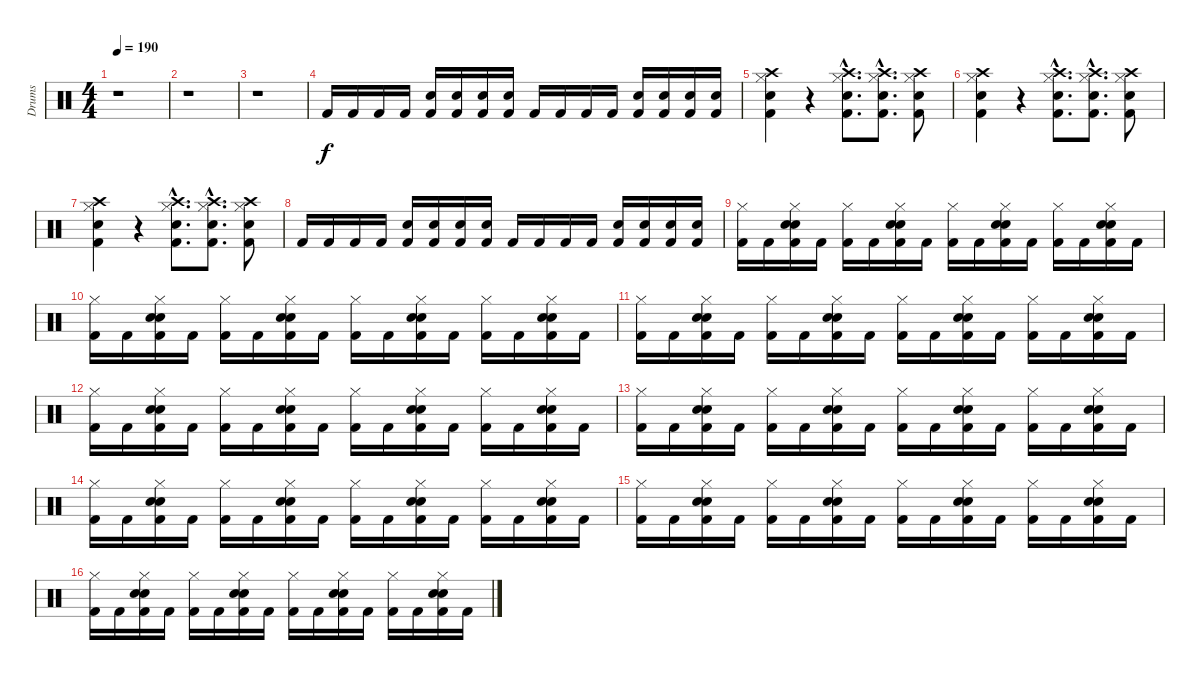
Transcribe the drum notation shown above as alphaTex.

\track ("Drums" "Drums") {instrument percussion}
\staff {score}
\articulation defaults
\ts (4 4)
\tempo 190
\clef neutral
\ks c
r.1{dy f} |
r.1 |
r.1 |
"Kick (hit) 2".16 "Kick (hit) 2".16 "Kick (hit) 2".16 "Kick (hit) 2".16 ("Snare (hit) 2" "Kick (hit) 2").16 ("Snare (hit) 2" "Kick (hit) 2").16 ("Snare (hit) 2" "Kick (hit) 2").16 ("Snare (hit) 2" "Kick (hit) 2").16 "Kick (hit) 2".16 "Kick (hit) 2".16 "Kick (hit) 2".16 "Kick (hit) 2".16 ("Snare (hit) 2" "Kick (hit) 2").16 ("Snare (hit) 2" "Kick (hit) 2").16 ("Snare (hit) 2" "Kick (hit) 2").16 ("Snare (hit) 2" "Kick (hit) 2").16 |
("Crash high (hit)" "Hi-Hat (closed)" "Snare (hit) 2" "Kick (hit) 2").4 r.4 ("Crash high (hit)"{hac} "Hi-Hat (closed)"{hac} "Snare (hit) 2"{hac} "Kick (hit) 2"{hac}).8{d} ("Crash high (hit)"{hac} "Hi-Hat (closed)"{hac} "Snare (hit) 2"{hac} "Kick (hit) 2"{hac}).8{d} ("Crash high (hit)" "Hi-Hat (closed)" "Snare (hit) 2" "Kick (hit) 2").8 |
("Crash high (hit)" "Hi-Hat (closed)" "Snare (hit) 2" "Kick (hit) 2").4 r.4 ("Crash high (hit)"{hac} "Hi-Hat (closed)"{hac} "Snare (hit) 2"{hac} "Kick (hit) 2"{hac}).8{d} ("Crash high (hit)"{hac} "Hi-Hat (closed)"{hac} "Snare (hit) 2"{hac} "Kick (hit) 2"{hac}).8{d} ("Crash high (hit)" "Hi-Hat (closed)" "Snare (hit) 2" "Kick (hit) 2").8 |
("Crash high (hit)" "Hi-Hat (closed)" "Snare (hit) 2" "Kick (hit) 2").4 r.4 ("Crash high (hit)"{hac} "Hi-Hat (closed)"{hac} "Snare (hit) 2"{hac} "Kick (hit) 2"{hac}).8{d} ("Crash high (hit)"{hac} "Hi-Hat (closed)"{hac} "Snare (hit) 2"{hac} "Kick (hit) 2"{hac}).8{d} ("Crash high (hit)" "Hi-Hat (closed)" "Snare (hit) 2" "Kick (hit) 2").8 |
"Kick (hit) 2".16 "Kick (hit) 2".16 "Kick (hit) 2".16 "Kick (hit) 2".16 ("Snare (hit) 2" "Kick (hit) 2").16 ("Snare (hit) 2" "Kick (hit) 2").16 ("Snare (hit) 2" "Kick (hit) 2").16 ("Snare (hit) 2" "Kick (hit) 2").16 "Kick (hit) 2".16 "Kick (hit) 2".16 "Kick (hit) 2".16 "Kick (hit) 2".16 ("Snare (hit) 2" "Kick (hit) 2").16 ("Snare (hit) 2" "Kick (hit) 2").16 ("Snare (hit) 2" "Kick (hit) 2").16 ("Snare (hit) 2" "Kick (hit) 2").16 |
("Hi-Hat (closed)" "Kick (hit) 2").16 "Kick (hit) 2".16 ("Snare (hit) 2" "Hi-Hat (closed)" "Snare (hit) 2" "Kick (hit) 2").16 "Kick (hit) 2".16 ("Hi-Hat (closed)" "Kick (hit) 2").16 "Kick (hit) 2".16 ("Snare (hit) 2" "Hi-Hat (closed)" "Snare (hit) 2" "Kick (hit) 2").16 "Kick (hit) 2".16 ("Hi-Hat (closed)" "Kick (hit) 2").16 "Kick (hit) 2".16 ("Snare (hit) 2" "Hi-Hat (closed)" "Snare (hit) 2" "Kick (hit) 2").16 "Kick (hit) 2".16 ("Hi-Hat (closed)" "Kick (hit) 2").16 "Kick (hit) 2".16 ("Snare (hit) 2" "Hi-Hat (closed)" "Snare (hit) 2" "Kick (hit) 2").16 "Kick (hit) 2".16 |
("Hi-Hat (closed)" "Kick (hit) 2").16 "Kick (hit) 2".16 ("Snare (hit) 2" "Hi-Hat (closed)" "Snare (hit) 2" "Kick (hit) 2").16 "Kick (hit) 2".16 ("Hi-Hat (closed)" "Kick (hit) 2").16 "Kick (hit) 2".16 ("Snare (hit) 2" "Hi-Hat (closed)" "Snare (hit) 2" "Kick (hit) 2").16 "Kick (hit) 2".16 ("Hi-Hat (closed)" "Kick (hit) 2").16 "Kick (hit) 2".16 ("Snare (hit) 2" "Hi-Hat (closed)" "Snare (hit) 2" "Kick (hit) 2").16 "Kick (hit) 2".16 ("Hi-Hat (closed)" "Kick (hit) 2").16 "Kick (hit) 2".16 ("Snare (hit) 2" "Hi-Hat (closed)" "Snare (hit) 2" "Kick (hit) 2").16 "Kick (hit) 2".16 |
("Hi-Hat (closed)" "Kick (hit) 2").16 "Kick (hit) 2".16 ("Snare (hit) 2" "Hi-Hat (closed)" "Snare (hit) 2" "Kick (hit) 2").16 "Kick (hit) 2".16 ("Hi-Hat (closed)" "Kick (hit) 2").16 "Kick (hit) 2".16 ("Snare (hit) 2" "Hi-Hat (closed)" "Snare (hit) 2" "Kick (hit) 2").16 "Kick (hit) 2".16 ("Hi-Hat (closed)" "Kick (hit) 2").16 "Kick (hit) 2".16 ("Snare (hit) 2" "Hi-Hat (closed)" "Snare (hit) 2" "Kick (hit) 2").16 "Kick (hit) 2".16 ("Hi-Hat (closed)" "Kick (hit) 2").16 "Kick (hit) 2".16 ("Snare (hit) 2" "Hi-Hat (closed)" "Snare (hit) 2" "Kick (hit) 2").16 "Kick (hit) 2".16 |
("Hi-Hat (closed)" "Kick (hit) 2").16 "Kick (hit) 2".16 ("Snare (hit) 2" "Hi-Hat (closed)" "Snare (hit) 2" "Kick (hit) 2").16 "Kick (hit) 2".16 ("Hi-Hat (closed)" "Kick (hit) 2").16 "Kick (hit) 2".16 ("Snare (hit) 2" "Hi-Hat (closed)" "Snare (hit) 2" "Kick (hit) 2").16 "Kick (hit) 2".16 ("Hi-Hat (closed)" "Kick (hit) 2").16 "Kick (hit) 2".16 ("Snare (hit) 2" "Hi-Hat (closed)" "Snare (hit) 2" "Kick (hit) 2").16 "Kick (hit) 2".16 ("Hi-Hat (closed)" "Kick (hit) 2").16 "Kick (hit) 2".16 ("Snare (hit) 2" "Hi-Hat (closed)" "Snare (hit) 2" "Kick (hit) 2").16 "Kick (hit) 2".16 |
("Hi-Hat (closed)" "Kick (hit) 2").16 "Kick (hit) 2".16 ("Snare (hit) 2" "Hi-Hat (closed)" "Snare (hit) 2" "Kick (hit) 2").16 "Kick (hit) 2".16 ("Hi-Hat (closed)" "Kick (hit) 2").16 "Kick (hit) 2".16 ("Snare (hit) 2" "Hi-Hat (closed)" "Snare (hit) 2" "Kick (hit) 2").16 "Kick (hit) 2".16 ("Hi-Hat (closed)" "Kick (hit) 2").16 "Kick (hit) 2".16 ("Snare (hit) 2" "Hi-Hat (closed)" "Snare (hit) 2" "Kick (hit) 2").16 "Kick (hit) 2".16 ("Hi-Hat (closed)" "Kick (hit) 2").16 "Kick (hit) 2".16 ("Snare (hit) 2" "Hi-Hat (closed)" "Snare (hit) 2" "Kick (hit) 2").16 "Kick (hit) 2".16 |
("Hi-Hat (closed)" "Kick (hit) 2").16 "Kick (hit) 2".16 ("Snare (hit) 2" "Hi-Hat (closed)" "Snare (hit) 2" "Kick (hit) 2").16 "Kick (hit) 2".16 ("Hi-Hat (closed)" "Kick (hit) 2").16 "Kick (hit) 2".16 ("Snare (hit) 2" "Hi-Hat (closed)" "Snare (hit) 2" "Kick (hit) 2").16 "Kick (hit) 2".16 ("Hi-Hat (closed)" "Kick (hit) 2").16 "Kick (hit) 2".16 ("Snare (hit) 2" "Hi-Hat (closed)" "Snare (hit) 2" "Kick (hit) 2").16 "Kick (hit) 2".16 ("Hi-Hat (closed)" "Kick (hit) 2").16 "Kick (hit) 2".16 ("Snare (hit) 2" "Hi-Hat (closed)" "Snare (hit) 2" "Kick (hit) 2").16 "Kick (hit) 2".16 |
("Hi-Hat (closed)" "Kick (hit) 2").16 "Kick (hit) 2".16 ("Snare (hit) 2" "Hi-Hat (closed)" "Snare (hit) 2" "Kick (hit) 2").16 "Kick (hit) 2".16 ("Hi-Hat (closed)" "Kick (hit) 2").16 "Kick (hit) 2".16 ("Snare (hit) 2" "Hi-Hat (closed)" "Snare (hit) 2" "Kick (hit) 2").16 "Kick (hit) 2".16 ("Hi-Hat (closed)" "Kick (hit) 2").16 "Kick (hit) 2".16 ("Snare (hit) 2" "Hi-Hat (closed)" "Snare (hit) 2" "Kick (hit) 2").16 "Kick (hit) 2".16 ("Hi-Hat (closed)" "Kick (hit) 2").16 "Kick (hit) 2".16 ("Snare (hit) 2" "Hi-Hat (closed)" "Snare (hit) 2" "Kick (hit) 2").16 "Kick (hit) 2".16 |
("Hi-Hat (closed)" "Kick (hit) 2").16 "Kick (hit) 2".16 ("Snare (hit) 2" "Hi-Hat (closed)" "Snare (hit) 2" "Kick (hit) 2").16 "Kick (hit) 2".16 ("Hi-Hat (closed)" "Kick (hit) 2").16 "Kick (hit) 2".16 ("Snare (hit) 2" "Hi-Hat (closed)" "Snare (hit) 2" "Kick (hit) 2").16 "Kick (hit) 2".16 ("Hi-Hat (closed)" "Kick (hit) 2").16 "Kick (hit) 2".16 ("Snare (hit) 2" "Hi-Hat (closed)" "Snare (hit) 2" "Kick (hit) 2").16 "Kick (hit) 2".16 ("Hi-Hat (closed)" "Kick (hit) 2").16 "Kick (hit) 2".16 ("Snare (hit) 2" "Hi-Hat (closed)" "Snare (hit) 2" "Kick (hit) 2").16 "Kick (hit) 2".16
